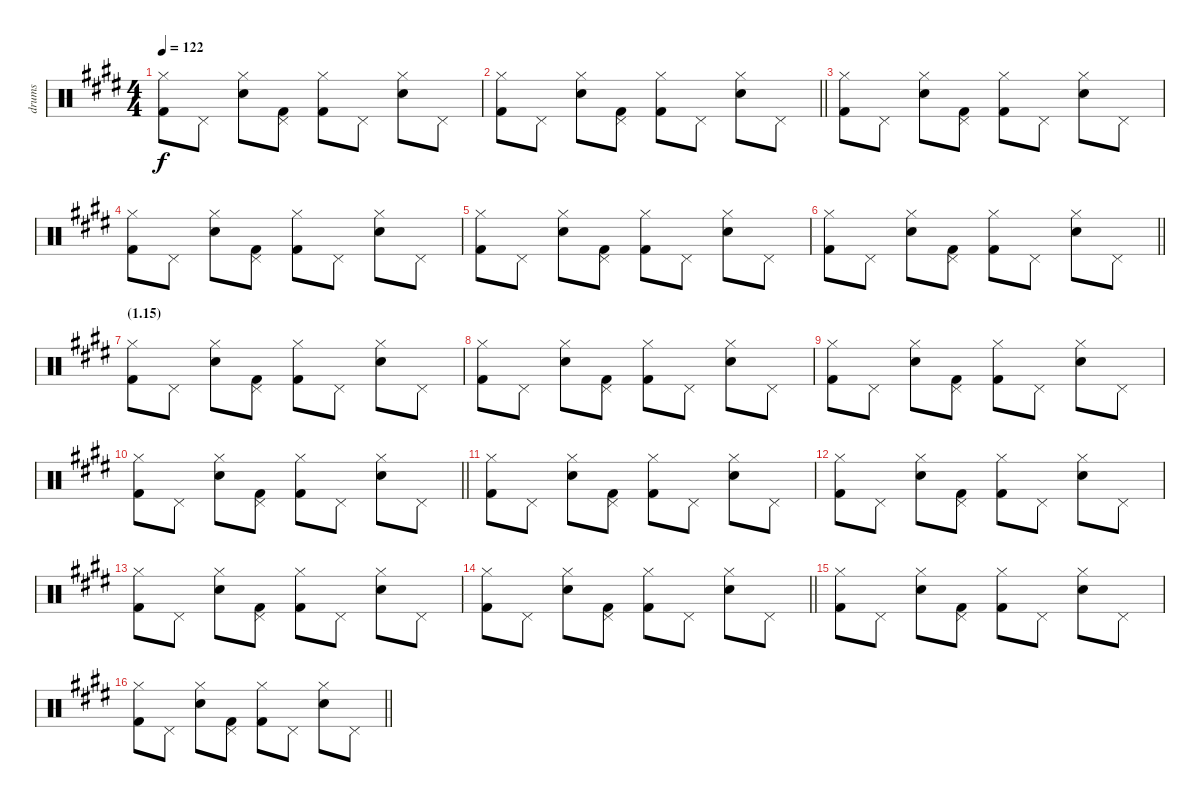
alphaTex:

\track ("drums" "drums") {instrument percussion}
\staff {score}
\articulation defaults
\ts (4 4)
\tempo 122
\clef neutral
\ks e
("Hi-Hat (closed)" "Kick (hit) 2").8{dy f} "Pedal Hi-Hat (hit)".8 ("Hi-Hat (closed)" "Electric Snare (hit)").8 ("Pedal Hi-Hat (hit)" "Kick (hit) 2").8 ("Hi-Hat (closed)" "Kick (hit) 2").8 "Pedal Hi-Hat (hit)".8 ("Hi-Hat (closed)" "Electric Snare (hit)").8 "Pedal Hi-Hat (hit)".8 |
\barLineRight lightlight
("Hi-Hat (closed)" "Kick (hit) 2").8 "Pedal Hi-Hat (hit)".8 ("Hi-Hat (closed)" "Electric Snare (hit)").8 ("Pedal Hi-Hat (hit)" "Kick (hit) 2").8 ("Hi-Hat (closed)" "Kick (hit) 2").8 "Pedal Hi-Hat (hit)".8 ("Hi-Hat (closed)" "Electric Snare (hit)").8 "Pedal Hi-Hat (hit)".8 |
("Hi-Hat (closed)" "Kick (hit) 2").8 "Pedal Hi-Hat (hit)".8 ("Hi-Hat (closed)" "Electric Snare (hit)").8 ("Pedal Hi-Hat (hit)" "Kick (hit) 2").8 ("Hi-Hat (closed)" "Kick (hit) 2").8 "Pedal Hi-Hat (hit)".8 ("Hi-Hat (closed)" "Electric Snare (hit)").8 "Pedal Hi-Hat (hit)".8 |
("Hi-Hat (closed)" "Kick (hit) 2").8 "Pedal Hi-Hat (hit)".8 ("Hi-Hat (closed)" "Electric Snare (hit)").8 ("Pedal Hi-Hat (hit)" "Kick (hit) 2").8 ("Hi-Hat (closed)" "Kick (hit) 2").8 "Pedal Hi-Hat (hit)".8 ("Hi-Hat (closed)" "Electric Snare (hit)").8 "Pedal Hi-Hat (hit)".8 |
("Hi-Hat (closed)" "Kick (hit) 2").8 "Pedal Hi-Hat (hit)".8 ("Hi-Hat (closed)" "Electric Snare (hit)").8 ("Pedal Hi-Hat (hit)" "Kick (hit) 2").8 ("Hi-Hat (closed)" "Kick (hit) 2").8 "Pedal Hi-Hat (hit)".8 ("Hi-Hat (closed)" "Electric Snare (hit)").8 "Pedal Hi-Hat (hit)".8 |
\barLineRight lightlight
("Hi-Hat (closed)" "Kick (hit) 2").8 "Pedal Hi-Hat (hit)".8 ("Hi-Hat (closed)" "Electric Snare (hit)").8 ("Pedal Hi-Hat (hit)" "Kick (hit) 2").8 ("Hi-Hat (closed)" "Kick (hit) 2").8 "Pedal Hi-Hat (hit)".8 ("Hi-Hat (closed)" "Electric Snare (hit)").8 "Pedal Hi-Hat (hit)".8 |
\section ("" "(1.15)")
("Hi-Hat (closed)" "Kick (hit) 2").8 "Pedal Hi-Hat (hit)".8 ("Hi-Hat (closed)" "Electric Snare (hit)").8 ("Pedal Hi-Hat (hit)" "Kick (hit) 2").8 ("Hi-Hat (closed)" "Kick (hit) 2").8 "Pedal Hi-Hat (hit)".8 ("Hi-Hat (closed)" "Electric Snare (hit)").8 "Pedal Hi-Hat (hit)".8 |
("Hi-Hat (closed)" "Kick (hit) 2").8 "Pedal Hi-Hat (hit)".8 ("Hi-Hat (closed)" "Electric Snare (hit)").8 ("Pedal Hi-Hat (hit)" "Kick (hit) 2").8 ("Hi-Hat (closed)" "Kick (hit) 2").8 "Pedal Hi-Hat (hit)".8 ("Hi-Hat (closed)" "Electric Snare (hit)").8 "Pedal Hi-Hat (hit)".8 |
("Hi-Hat (closed)" "Kick (hit) 2").8 "Pedal Hi-Hat (hit)".8 ("Hi-Hat (closed)" "Electric Snare (hit)").8 ("Pedal Hi-Hat (hit)" "Kick (hit) 2").8 ("Hi-Hat (closed)" "Kick (hit) 2").8 "Pedal Hi-Hat (hit)".8 ("Hi-Hat (closed)" "Electric Snare (hit)").8 "Pedal Hi-Hat (hit)".8 |
\barLineRight lightlight
("Hi-Hat (closed)" "Kick (hit) 2").8 "Pedal Hi-Hat (hit)".8 ("Hi-Hat (closed)" "Electric Snare (hit)").8 ("Pedal Hi-Hat (hit)" "Kick (hit) 2").8 ("Hi-Hat (closed)" "Kick (hit) 2").8 "Pedal Hi-Hat (hit)".8 ("Hi-Hat (closed)" "Electric Snare (hit)").8 "Pedal Hi-Hat (hit)".8 |
("Hi-Hat (closed)" "Kick (hit) 2").8 "Pedal Hi-Hat (hit)".8 ("Hi-Hat (closed)" "Electric Snare (hit)").8 ("Pedal Hi-Hat (hit)" "Kick (hit) 2").8 ("Hi-Hat (closed)" "Kick (hit) 2").8 "Pedal Hi-Hat (hit)".8 ("Hi-Hat (closed)" "Electric Snare (hit)").8 "Pedal Hi-Hat (hit)".8 |
("Hi-Hat (closed)" "Kick (hit) 2").8 "Pedal Hi-Hat (hit)".8 ("Hi-Hat (closed)" "Electric Snare (hit)").8 ("Pedal Hi-Hat (hit)" "Kick (hit) 2").8 ("Hi-Hat (closed)" "Kick (hit) 2").8 "Pedal Hi-Hat (hit)".8 ("Hi-Hat (closed)" "Electric Snare (hit)").8 "Pedal Hi-Hat (hit)".8 |
("Hi-Hat (closed)" "Kick (hit) 2").8 "Pedal Hi-Hat (hit)".8 ("Hi-Hat (closed)" "Electric Snare (hit)").8 ("Pedal Hi-Hat (hit)" "Kick (hit) 2").8 ("Hi-Hat (closed)" "Kick (hit) 2").8 "Pedal Hi-Hat (hit)".8 ("Hi-Hat (closed)" "Electric Snare (hit)").8 "Pedal Hi-Hat (hit)".8 |
\barLineRight lightlight
("Hi-Hat (closed)" "Kick (hit) 2").8 "Pedal Hi-Hat (hit)".8 ("Hi-Hat (closed)" "Electric Snare (hit)").8 ("Pedal Hi-Hat (hit)" "Kick (hit) 2").8 ("Hi-Hat (closed)" "Kick (hit) 2").8 "Pedal Hi-Hat (hit)".8 ("Hi-Hat (closed)" "Electric Snare (hit)").8 "Pedal Hi-Hat (hit)".8 |
("Hi-Hat (closed)" "Kick (hit) 2").8 "Pedal Hi-Hat (hit)".8 ("Hi-Hat (closed)" "Electric Snare (hit)").8 ("Pedal Hi-Hat (hit)" "Kick (hit) 2").8 ("Hi-Hat (closed)" "Kick (hit) 2").8 "Pedal Hi-Hat (hit)".8 ("Hi-Hat (closed)" "Electric Snare (hit)").8 "Pedal Hi-Hat (hit)".8 |
\barLineRight lightlight
("Hi-Hat (closed)" "Kick (hit) 2").8 "Pedal Hi-Hat (hit)".8 ("Hi-Hat (closed)" "Electric Snare (hit)").8 ("Pedal Hi-Hat (hit)" "Kick (hit) 2").8 ("Hi-Hat (closed)" "Kick (hit) 2").8 "Pedal Hi-Hat (hit)".8 ("Hi-Hat (closed)" "Electric Snare (hit)").8 "Pedal Hi-Hat (hit)".8
